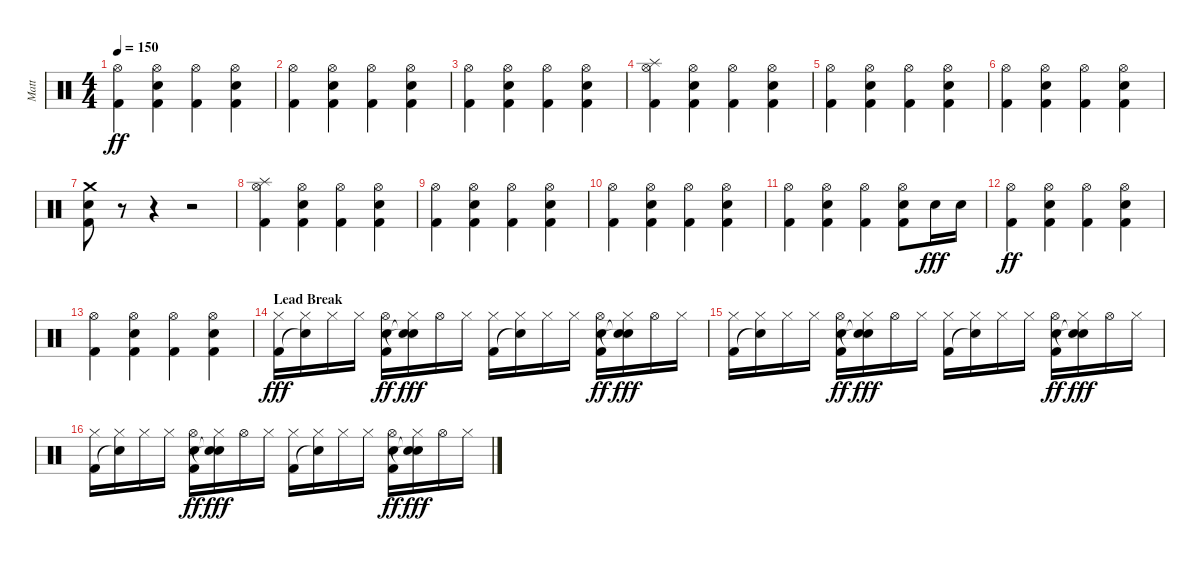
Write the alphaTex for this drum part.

\track ("Matt" "Matt") {instrument percussion}
\staff {score}
\articulation defaults
\ts (4 4)
\tempo 150
\clef neutral
\ks c
("Hi-Hat (open)" "Kick (hit) 2").4{dy ff} ("Hi-Hat (open)" "Electric Snare (hit)" "Kick (hit) 2").4 ("Hi-Hat (open)" "Kick (hit) 2").4 ("Hi-Hat (open)" "Electric Snare (hit)" "Kick (hit) 2").4 |
("Hi-Hat (open)" "Kick (hit) 2").4 ("Hi-Hat (open)" "Electric Snare (hit)" "Kick (hit) 2").4 ("Hi-Hat (open)" "Kick (hit) 2").4 ("Hi-Hat (open)" "Electric Snare (hit)" "Kick (hit) 2").4 |
("Hi-Hat (open)" "Kick (hit) 2").4 ("Hi-Hat (open)" "Electric Snare (hit)" "Kick (hit) 2").4 ("Hi-Hat (open)" "Kick (hit) 2").4 ("Hi-Hat (open)" "Electric Snare (hit)" "Kick (hit) 2").4 |
("Splash (hit)" "Hi-Hat (open)" "Kick (hit) 2").4 ("Hi-Hat (open)" "Electric Snare (hit)" "Kick (hit) 2").4 ("Hi-Hat (open)" "Kick (hit) 2").4 ("Hi-Hat (open)" "Electric Snare (hit)" "Kick (hit) 2").4 |
("Hi-Hat (open)" "Kick (hit) 2").4 ("Hi-Hat (open)" "Electric Snare (hit)" "Kick (hit) 2").4 ("Hi-Hat (open)" "Kick (hit) 2").4 ("Hi-Hat (open)" "Electric Snare (hit)" "Kick (hit) 2").4 |
("Hi-Hat (open)" "Kick (hit) 2").4 ("Hi-Hat (open)" "Electric Snare (hit)" "Kick (hit) 2").4 ("Hi-Hat (open)" "Kick (hit) 2").4 ("Hi-Hat (open)" "Electric Snare (hit)" "Kick (hit) 2").4 |
("Crash medium (hit)" "Electric Snare (hit)" "Kick (hit) 2").8 r.8 r.4 r.2 |
("Splash (hit)" "Hi-Hat (open)" "Kick (hit) 2").4 ("Hi-Hat (open)" "Electric Snare (hit)" "Kick (hit) 2").4 ("Hi-Hat (open)" "Kick (hit) 2").4 ("Hi-Hat (open)" "Electric Snare (hit)" "Kick (hit) 2").4 |
("Hi-Hat (open)" "Kick (hit) 2").4 ("Hi-Hat (open)" "Electric Snare (hit)" "Kick (hit) 2").4 ("Hi-Hat (open)" "Kick (hit) 2").4 ("Hi-Hat (open)" "Electric Snare (hit)" "Kick (hit) 2").4 |
("Hi-Hat (open)" "Kick (hit) 2").4 ("Hi-Hat (open)" "Electric Snare (hit)" "Kick (hit) 2").4 ("Hi-Hat (open)" "Kick (hit) 2").4 ("Hi-Hat (open)" "Electric Snare (hit)" "Kick (hit) 2").4 |
("Hi-Hat (open)" "Kick (hit) 2").4 ("Hi-Hat (open)" "Electric Snare (hit)" "Kick (hit) 2").4 ("Hi-Hat (open)" "Kick (hit) 2").4 ("Hi-Hat (open)" "Electric Snare (hit)" "Kick (hit) 2").8 "Electric Snare (hit)".16{dy fff} "Electric Snare (hit)".16 |
("Hi-Hat (open)" "Kick (hit) 2").4{dy ff} ("Hi-Hat (open)" "Electric Snare (hit)" "Kick (hit) 2").4 ("Hi-Hat (open)" "Kick (hit) 2").4 ("Hi-Hat (open)" "Electric Snare (hit)" "Kick (hit) 2").4 |
("Hi-Hat (open)" "Kick (hit) 2").4 ("Hi-Hat (open)" "Electric Snare (hit)" "Kick (hit) 2").4 ("Hi-Hat (open)" "Kick (hit) 2").4 ("Hi-Hat (open)" "Electric Snare (hit)" "Kick (hit) 2").4 |
\section ("" "Lead Break")
("Hi-Hat (closed)" "Kick (hit) 2").16{dy fff} ("Hi-Hat (closed)" "Snare (hit)"{t}).16 "Hi-Hat (closed)".16 "Hi-Hat (closed)".16 ("Hi-Hat (open)" "Electric Snare (hit)" "Kick (hit) 2").16{dy ff} ("Hi-Hat (closed)" "Snare (hit)"{t} "Snare (hit)"{t}).16{dy fff} "Hi-Hat (open)".16 "Hi-Hat (closed)".16 ("Hi-Hat (closed)" "Kick (hit) 2").16 ("Hi-Hat (closed)" "Snare (hit)"{t}).16 "Hi-Hat (closed)".16 "Hi-Hat (closed)".16 ("Hi-Hat (open)" "Electric Snare (hit)" "Kick (hit) 2").16{dy ff} ("Hi-Hat (closed)" "Snare (hit)"{t} "Snare (hit)"{t}).16{dy fff} "Hi-Hat (open)".16 "Hi-Hat (closed)".16 |
("Hi-Hat (closed)" "Kick (hit) 2").16 ("Hi-Hat (closed)" "Snare (hit)"{t}).16 "Hi-Hat (closed)".16 "Hi-Hat (closed)".16 ("Hi-Hat (open)" "Electric Snare (hit)" "Kick (hit) 2").16{dy ff} ("Hi-Hat (closed)" "Snare (hit)"{t} "Snare (hit)"{t}).16{dy fff} "Hi-Hat (open)".16 "Hi-Hat (closed)".16 ("Hi-Hat (closed)" "Kick (hit) 2").16 ("Hi-Hat (closed)" "Snare (hit)"{t}).16 "Hi-Hat (closed)".16 "Hi-Hat (closed)".16 ("Hi-Hat (open)" "Electric Snare (hit)" "Kick (hit) 2").16{dy ff} ("Hi-Hat (closed)" "Snare (hit)"{t} "Snare (hit)"{t}).16{dy fff} "Hi-Hat (open)".16 "Hi-Hat (closed)".16 |
("Hi-Hat (closed)" "Kick (hit) 2").16 ("Hi-Hat (closed)" "Snare (hit)"{t}).16 "Hi-Hat (closed)".16 "Hi-Hat (closed)".16 ("Hi-Hat (open)" "Electric Snare (hit)" "Kick (hit) 2").16{dy ff} ("Hi-Hat (closed)" "Snare (hit)"{t} "Snare (hit)"{t}).16{dy fff} "Hi-Hat (open)".16 "Hi-Hat (closed)".16 ("Hi-Hat (closed)" "Kick (hit) 2").16 ("Hi-Hat (closed)" "Snare (hit)"{t}).16 "Hi-Hat (closed)".16 "Hi-Hat (closed)".16 ("Hi-Hat (open)" "Electric Snare (hit)" "Kick (hit) 2").16{dy ff} ("Hi-Hat (closed)" "Snare (hit)"{t} "Snare (hit)"{t}).16{dy fff} "Hi-Hat (open)".16 "Hi-Hat (closed)".16
